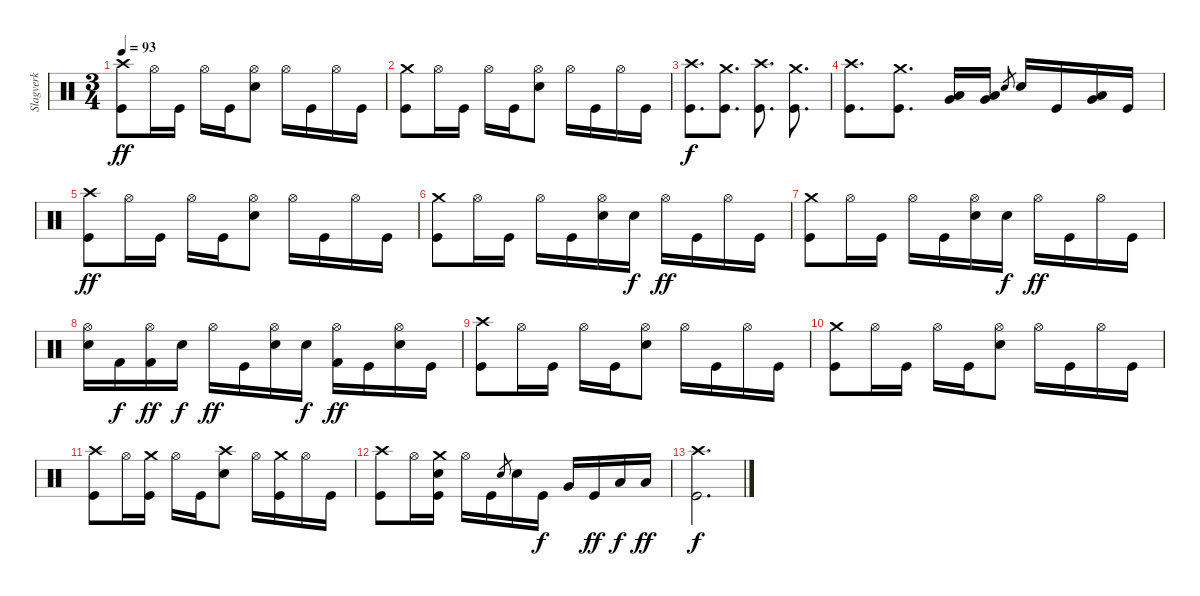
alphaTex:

\track ("Slagverk" "Slagverk") {instrument percussion}
\staff {score}
\articulation defaults
\ts (3 4)
\tempo 93
\clef neutral
\ks c
("Crash high (hit)" "Kick (hit)").8{dy ff} "Hi-Hat (open)".16 "Kick (hit)".16 "Hi-Hat (open)".16 "Kick (hit)".16 ("Hi-Hat (open)" "Electric Snare (hit)").8 "Hi-Hat (open)".16 "Kick (hit)".16 "Hi-Hat (open)".16 "Kick (hit)".16 |
("Crash medium (hit)" "Kick (hit)").8 "Hi-Hat (open)".16 "Kick (hit)".16 "Hi-Hat (open)".16 "Kick (hit)".16 ("Hi-Hat (open)" "Electric Snare (hit)").8 "Hi-Hat (open)".16 "Kick (hit)".16 "Hi-Hat (open)".16 "Kick (hit)".16 |
("Crash high (hit)" "Kick (hit)").8{d dy f} ("Crash medium (hit)" "Kick (hit)").8{d} ("Crash high (hit)" "Kick (hit)").8{d} ("Crash medium (hit)" "Kick (hit)").8{d} |
("Crash high (hit)" "Kick (hit)").8{d} ("Crash medium (hit)" "Kick (hit)").8{d} ("Low Floor Tom (hit)" "Very Low Tom (hit)").16 ("Low Floor Tom (hit)" "Very Low Tom (hit)").16 "Electric Snare (hit)".8{gr} "Electric Snare (hit)".16 "Kick (hit)".16 ("Low Floor Tom (hit)" "Very Low Tom (hit)").16 "Kick (hit)".16 |
("Crash high (hit)" "Kick (hit)").8{dy ff} "Hi-Hat (open)".16 "Kick (hit)".16 "Hi-Hat (open)".16 "Kick (hit)".16 ("Hi-Hat (open)" "Electric Snare (hit)").8 "Hi-Hat (open)".16 "Kick (hit)".16 "Hi-Hat (open)".16 "Kick (hit)".16 |
("Crash medium (hit)" "Kick (hit)").8 "Hi-Hat (open)".16 "Kick (hit)".16 "Hi-Hat (open)".16 "Kick (hit)".16 ("Hi-Hat (open)" "Electric Snare (hit)").16 "Electric Snare (hit)".16{dy f} "Hi-Hat (open)".16{dy ff} "Kick (hit)".16 "Hi-Hat (open)".16 "Kick (hit)".16 |
("Crash medium (hit)" "Kick (hit)").8 "Hi-Hat (open)".16 "Kick (hit)".16 "Hi-Hat (open)".16 "Kick (hit)".16 ("Hi-Hat (open)" "Electric Snare (hit)").16 "Electric Snare (hit)".16{dy f} "Hi-Hat (open)".16{dy ff} "Kick (hit)".16 "Hi-Hat (open)".16 "Kick (hit)".16 |
("Hi-Hat (open)" "Electric Snare (hit)").16 "Kick (hit) 2".16{dy f} ("Hi-Hat (open)" "Kick (hit) 2").16{dy ff} "Electric Snare (hit)".16{dy f} "Hi-Hat (open)".16{dy ff} "Kick (hit)".16 ("Hi-Hat (open)" "Electric Snare (hit)").16 "Electric Snare (hit)".16{dy f} ("Hi-Hat (open)" "Kick (hit) 2").16{dy ff} "Kick (hit)".16 ("Hi-Hat (open)" "Electric Snare (hit)").16 "Kick (hit)".16 |
("Crash high (hit)" "Kick (hit)").8 "Hi-Hat (open)".16 "Kick (hit)".16 "Hi-Hat (open)".16 "Kick (hit)".16 ("Hi-Hat (open)" "Electric Snare (hit)").8 "Hi-Hat (open)".16 "Kick (hit)".16 "Hi-Hat (open)".16 "Kick (hit)".16 |
("Crash medium (hit)" "Kick (hit)").8 "Hi-Hat (open)".16 "Kick (hit)".16 "Hi-Hat (open)".16 "Kick (hit)".16 ("Hi-Hat (open)" "Electric Snare (hit)").8 "Hi-Hat (open)".16 "Kick (hit)".16 "Hi-Hat (open)".16 "Kick (hit)".16 |
("Crash high (hit)" "Kick (hit)").8 "Hi-Hat (open)".16 ("Crash medium (hit)" "Kick (hit)").16 "Hi-Hat (open)".16 "Kick (hit)".16 ("Crash high (hit)" "Electric Snare (hit)").8 "Hi-Hat (open)".16 ("Kick (hit)" "Crash medium (hit)").16 "Hi-Hat (open)".16 "Kick (hit)".16 |
("Crash high (hit)" "Kick (hit)").8 "Hi-Hat (open)".16 ("Electric Snare (hit)" "Crash medium (hit)" "Kick (hit)").16 "Hi-Hat (open)".16 "Kick (hit)".16 "Electric Snare (hit)".8{gr} "Electric Snare (hit)".16 "Kick (hit)".16{dy f} "Very Low Tom (hit)".16 "Kick (hit)".16{dy ff} "Low Floor Tom (hit)".16{dy f} "Low Floor Tom (hit)".16{dy ff} |
("Kick (hit)" "Crash high (hit)").2{d dy f}
